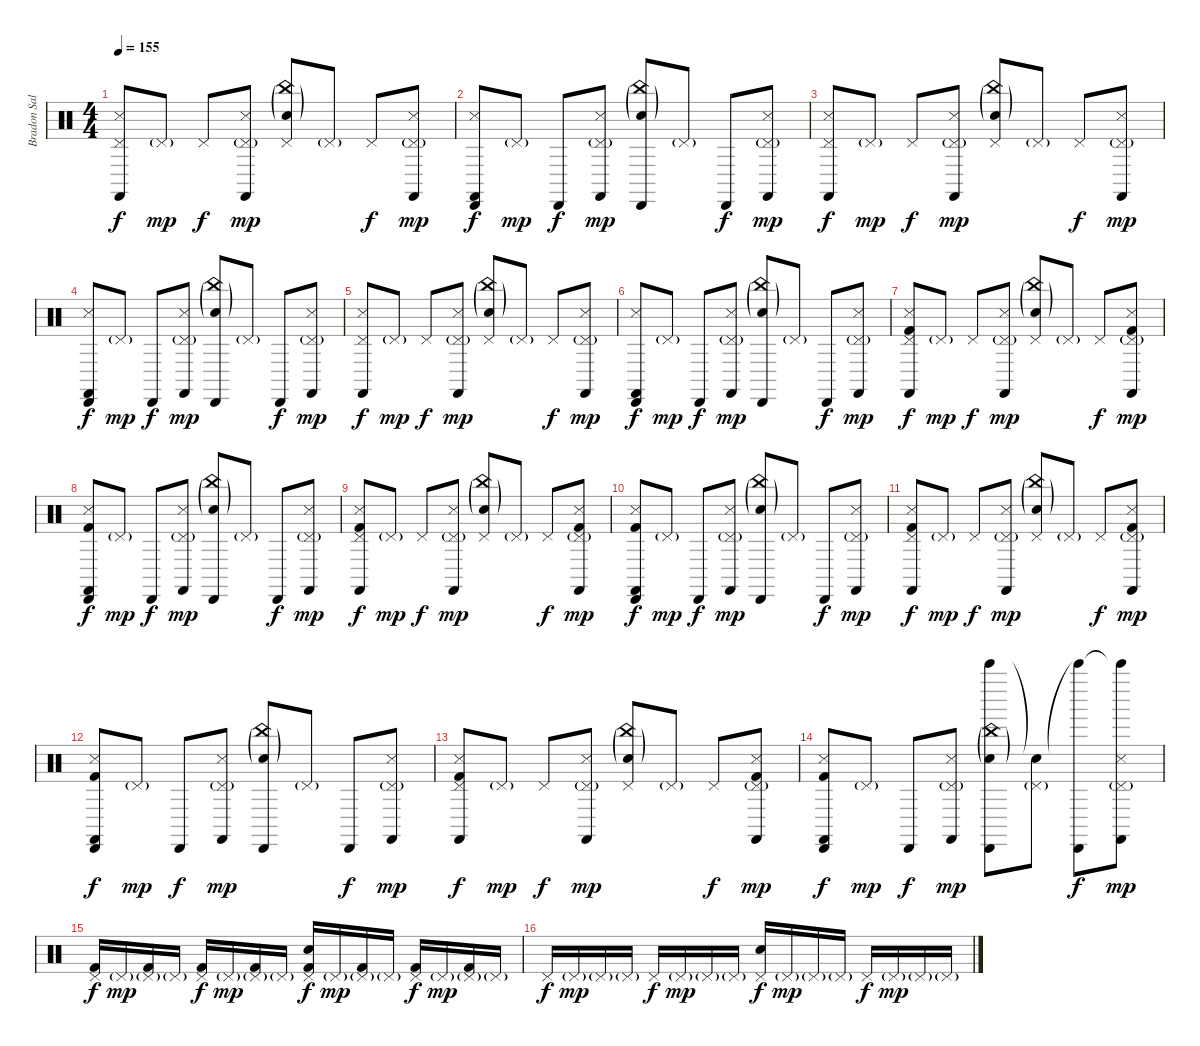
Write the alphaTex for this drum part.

\track ("Bradon Saller" "Bradon Sal") {instrument percussion}
\staff {score}
\articulation defaults
\ts (4 4)
\tempo 155
\clef neutral
\ks c
("Pedal Hi-Hat (hit)" "Castanets (hit)" "Snare (side stick) 3").8{dy f} "Pedal Hi-Hat (hit)"{g}.8{dy mp} "Pedal Hi-Hat (hit)".8{dy f} ("Pedal Hi-Hat (hit)"{g} "Castanets (hit)" "Snare (side stick) 3").8{dy mp} ("Pedal Hi-Hat (hit)" "China (hit)"{g} "Electric Snare (hit)"{g}).8 "Pedal Hi-Hat (hit)"{g}.8 "Pedal Hi-Hat (hit)".8{dy f} ("Pedal Hi-Hat (hit)"{g} "Castanets (hit)" "Snare (side stick) 3").8{dy mp} |
("Cabasa (hit)" "Castanets (hit)" "Snare (side stick) 3").8{dy f} "Pedal Hi-Hat (hit)"{g}.8{dy mp} "Cabasa (hit)".8{dy f} ("Pedal Hi-Hat (hit)"{g} "Castanets (hit)" "Snare (side stick) 3").8{dy mp} ("Cabasa (hit)" "China (hit)"{g} "Electric Snare (hit)"{g}).8 "Pedal Hi-Hat (hit)"{g}.8 "Cabasa (hit)".8{dy f} ("Pedal Hi-Hat (hit)"{g} "Castanets (hit)" "Snare (side stick) 3").8{dy mp} |
("Pedal Hi-Hat (hit)" "Castanets (hit)" "Snare (side stick) 3").8{dy f} "Pedal Hi-Hat (hit)"{g}.8{dy mp} "Pedal Hi-Hat (hit)".8{dy f} ("Pedal Hi-Hat (hit)"{g} "Castanets (hit)" "Snare (side stick) 3").8{dy mp} ("Pedal Hi-Hat (hit)" "China (hit)"{g} "Electric Snare (hit)"{g}).8 "Pedal Hi-Hat (hit)"{g}.8 "Pedal Hi-Hat (hit)".8{dy f} ("Pedal Hi-Hat (hit)"{g} "Castanets (hit)" "Snare (side stick) 3").8{dy mp} |
("Cabasa (hit)" "Castanets (hit)" "Snare (side stick) 3").8{dy f} "Pedal Hi-Hat (hit)"{g}.8{dy mp} "Cabasa (hit)".8{dy f} ("Pedal Hi-Hat (hit)"{g} "Castanets (hit)" "Snare (side stick) 3").8{dy mp} ("Cabasa (hit)" "China (hit)"{g} "Electric Snare (hit)"{g}).8 "Pedal Hi-Hat (hit)"{g}.8 "Cabasa (hit)".8{dy f} ("Pedal Hi-Hat (hit)"{g} "Castanets (hit)" "Snare (side stick) 3").8{dy mp} |
("Pedal Hi-Hat (hit)" "Castanets (hit)" "Snare (side stick) 3").8{dy f} "Pedal Hi-Hat (hit)"{g}.8{dy mp} "Pedal Hi-Hat (hit)".8{dy f} ("Pedal Hi-Hat (hit)"{g} "Castanets (hit)" "Snare (side stick) 3").8{dy mp} ("Pedal Hi-Hat (hit)" "China (hit)"{g} "Electric Snare (hit)"{g}).8 "Pedal Hi-Hat (hit)"{g}.8 "Pedal Hi-Hat (hit)".8{dy f} ("Pedal Hi-Hat (hit)"{g} "Castanets (hit)" "Snare (side stick) 3").8{dy mp} |
("Cabasa (hit)" "Castanets (hit)" "Snare (side stick) 3").8{dy f} "Pedal Hi-Hat (hit)"{g}.8{dy mp} "Cabasa (hit)".8{dy f} ("Pedal Hi-Hat (hit)"{g} "Castanets (hit)" "Snare (side stick) 3").8{dy mp} ("Cabasa (hit)" "China (hit)"{g} "Electric Snare (hit)"{g}).8 "Pedal Hi-Hat (hit)"{g}.8 "Cabasa (hit)".8{dy f} ("Pedal Hi-Hat (hit)"{g} "Castanets (hit)" "Snare (side stick) 3").8{dy mp} |
("Pedal Hi-Hat (hit)" "Castanets (hit)" "Snare (side stick) 3" "Kick (hit) 2").8{dy f} "Pedal Hi-Hat (hit)"{g}.8{dy mp} "Pedal Hi-Hat (hit)".8{dy f} ("Pedal Hi-Hat (hit)"{g} "Castanets (hit)" "Snare (side stick) 3").8{dy mp} ("Pedal Hi-Hat (hit)" "China (hit)"{g} "Electric Snare (hit)"{g}).8 "Pedal Hi-Hat (hit)"{g}.8 "Pedal Hi-Hat (hit)".8{dy f} ("Pedal Hi-Hat (hit)"{g} "Castanets (hit)" "Snare (side stick) 3" "Kick (hit) 2").8{dy mp} |
("Cabasa (hit)" "Castanets (hit)" "Snare (side stick) 3" "Kick (hit) 2").8{dy f} "Pedal Hi-Hat (hit)"{g}.8{dy mp} "Cabasa (hit)".8{dy f} ("Pedal Hi-Hat (hit)"{g} "Castanets (hit)" "Snare (side stick) 3").8{dy mp} ("Cabasa (hit)" "China (hit)"{g} "Electric Snare (hit)"{g}).8 "Pedal Hi-Hat (hit)"{g}.8 "Cabasa (hit)".8{dy f} ("Pedal Hi-Hat (hit)"{g} "Castanets (hit)" "Snare (side stick) 3").8{dy mp} |
("Pedal Hi-Hat (hit)" "Castanets (hit)" "Snare (side stick) 3" "Kick (hit) 2").8{dy f} "Pedal Hi-Hat (hit)"{g}.8{dy mp} "Pedal Hi-Hat (hit)".8{dy f} ("Pedal Hi-Hat (hit)"{g} "Castanets (hit)" "Snare (side stick) 3").8{dy mp} ("Pedal Hi-Hat (hit)" "China (hit)"{g} "Electric Snare (hit)"{g}).8 "Pedal Hi-Hat (hit)"{g}.8 "Pedal Hi-Hat (hit)".8{dy f} ("Pedal Hi-Hat (hit)"{g} "Castanets (hit)" "Snare (side stick) 3" "Kick (hit) 2").8{dy mp} |
("Cabasa (hit)" "Castanets (hit)" "Snare (side stick) 3" "Kick (hit) 2").8{dy f} "Pedal Hi-Hat (hit)"{g}.8{dy mp} "Cabasa (hit)".8{dy f} ("Pedal Hi-Hat (hit)"{g} "Castanets (hit)" "Snare (side stick) 3").8{dy mp} ("Cabasa (hit)" "China (hit)"{g} "Electric Snare (hit)"{g}).8 "Pedal Hi-Hat (hit)"{g}.8 "Cabasa (hit)".8{dy f} ("Pedal Hi-Hat (hit)"{g} "Castanets (hit)" "Snare (side stick) 3").8{dy mp} |
("Pedal Hi-Hat (hit)" "Castanets (hit)" "Snare (side stick) 3" "Kick (hit) 2").8{dy f} "Pedal Hi-Hat (hit)"{g}.8{dy mp} "Pedal Hi-Hat (hit)".8{dy f} ("Pedal Hi-Hat (hit)"{g} "Castanets (hit)" "Snare (side stick) 3").8{dy mp} ("Pedal Hi-Hat (hit)" "China (hit)"{g} "Electric Snare (hit)"{g}).8 "Pedal Hi-Hat (hit)"{g}.8 "Pedal Hi-Hat (hit)".8{dy f} ("Pedal Hi-Hat (hit)"{g} "Castanets (hit)" "Snare (side stick) 3" "Kick (hit) 2").8{dy mp} |
("Cabasa (hit)" "Castanets (hit)" "Snare (side stick) 3" "Kick (hit) 2").8{dy f} "Pedal Hi-Hat (hit)"{g}.8{dy mp} "Cabasa (hit)".8{dy f} ("Pedal Hi-Hat (hit)"{g} "Castanets (hit)" "Snare (side stick) 3").8{dy mp} ("Cabasa (hit)" "China (hit)"{g} "Electric Snare (hit)"{g}).8 "Pedal Hi-Hat (hit)"{g}.8 "Cabasa (hit)".8{dy f} ("Pedal Hi-Hat (hit)"{g} "Castanets (hit)" "Snare (side stick) 3").8{dy mp} |
("Pedal Hi-Hat (hit)" "Castanets (hit)" "Snare (side stick) 3" "Kick (hit) 2").8{dy f} "Pedal Hi-Hat (hit)"{g}.8{dy mp} "Pedal Hi-Hat (hit)".8{dy f} ("Pedal Hi-Hat (hit)"{g} "Castanets (hit)" "Snare (side stick) 3").8{dy mp} ("Pedal Hi-Hat (hit)" "China (hit)"{g} "Electric Snare (hit)"{g}).8 "Pedal Hi-Hat (hit)"{g}.8 "Pedal Hi-Hat (hit)".8{dy f} ("Pedal Hi-Hat (hit)"{g} "Castanets (hit)" "Snare (side stick) 3" "Kick (hit) 2").8{dy mp} |
("Cabasa (hit)" "Castanets (hit)" "Snare (side stick) 3" "Kick (hit) 2").8{dy f} "Pedal Hi-Hat (hit)"{g}.8{dy mp} "Cabasa (hit)".8{dy f} ("Pedal Hi-Hat (hit)"{g} "Castanets (hit)" "Snare (side stick) 3").8{dy mp} ("Cabasa (hit)" "Bell Tree (hit)" "China (hit)"{g} "Electric Snare (hit)"{g}).8 ("Pedal Hi-Hat (hit)"{g} "Snare (hit)"{t}).8 ("Cabasa (hit)" "Bell Tree (hit)"{t}).8{dy f} ("Pedal Hi-Hat (hit)"{g} "Bell Tree (hit)"{t} "Castanets (hit)" "Snare (side stick) 3").8{dy mp} |
("Pedal Hi-Hat (hit)" "Kick (hit) 2").16{dy f} "Pedal Hi-Hat (hit)"{g}.16{dy mp} ("Pedal Hi-Hat (hit)"{g} "Kick (hit) 2").16 "Pedal Hi-Hat (hit)"{g}.16 ("Pedal Hi-Hat (hit)" "Kick (hit) 2").16{dy f} "Pedal Hi-Hat (hit)"{g}.16{dy mp} ("Pedal Hi-Hat (hit)"{g} "Kick (hit) 2").16 "Pedal Hi-Hat (hit)"{g}.16 ("Pedal Hi-Hat (hit)" "Electric Snare (hit)" "Kick (hit) 2").16{dy f} "Pedal Hi-Hat (hit)"{g}.16{dy mp} ("Pedal Hi-Hat (hit)"{g} "Kick (hit) 2").16 "Pedal Hi-Hat (hit)"{g}.16 ("Pedal Hi-Hat (hit)" "Kick (hit) 2").16{dy f} "Pedal Hi-Hat (hit)"{g}.16{dy mp} ("Pedal Hi-Hat (hit)"{g} "Kick (hit) 2").16 "Pedal Hi-Hat (hit)"{g}.16 |
"Pedal Hi-Hat (hit)".16{dy f} "Pedal Hi-Hat (hit)"{g}.16{dy mp} "Pedal Hi-Hat (hit)"{g}.16 "Pedal Hi-Hat (hit)"{g}.16 "Pedal Hi-Hat (hit)".16{dy f} "Pedal Hi-Hat (hit)"{g}.16{dy mp} "Pedal Hi-Hat (hit)"{g}.16 "Pedal Hi-Hat (hit)"{g}.16 ("Pedal Hi-Hat (hit)" "Electric Snare (hit)").16{dy f} "Pedal Hi-Hat (hit)"{g}.16{dy mp} "Pedal Hi-Hat (hit)"{g}.16 "Pedal Hi-Hat (hit)"{g}.16 "Pedal Hi-Hat (hit)".16{dy f} "Pedal Hi-Hat (hit)"{g}.16{dy mp} "Pedal Hi-Hat (hit)"{g}.16 "Pedal Hi-Hat (hit)"{g}.16
